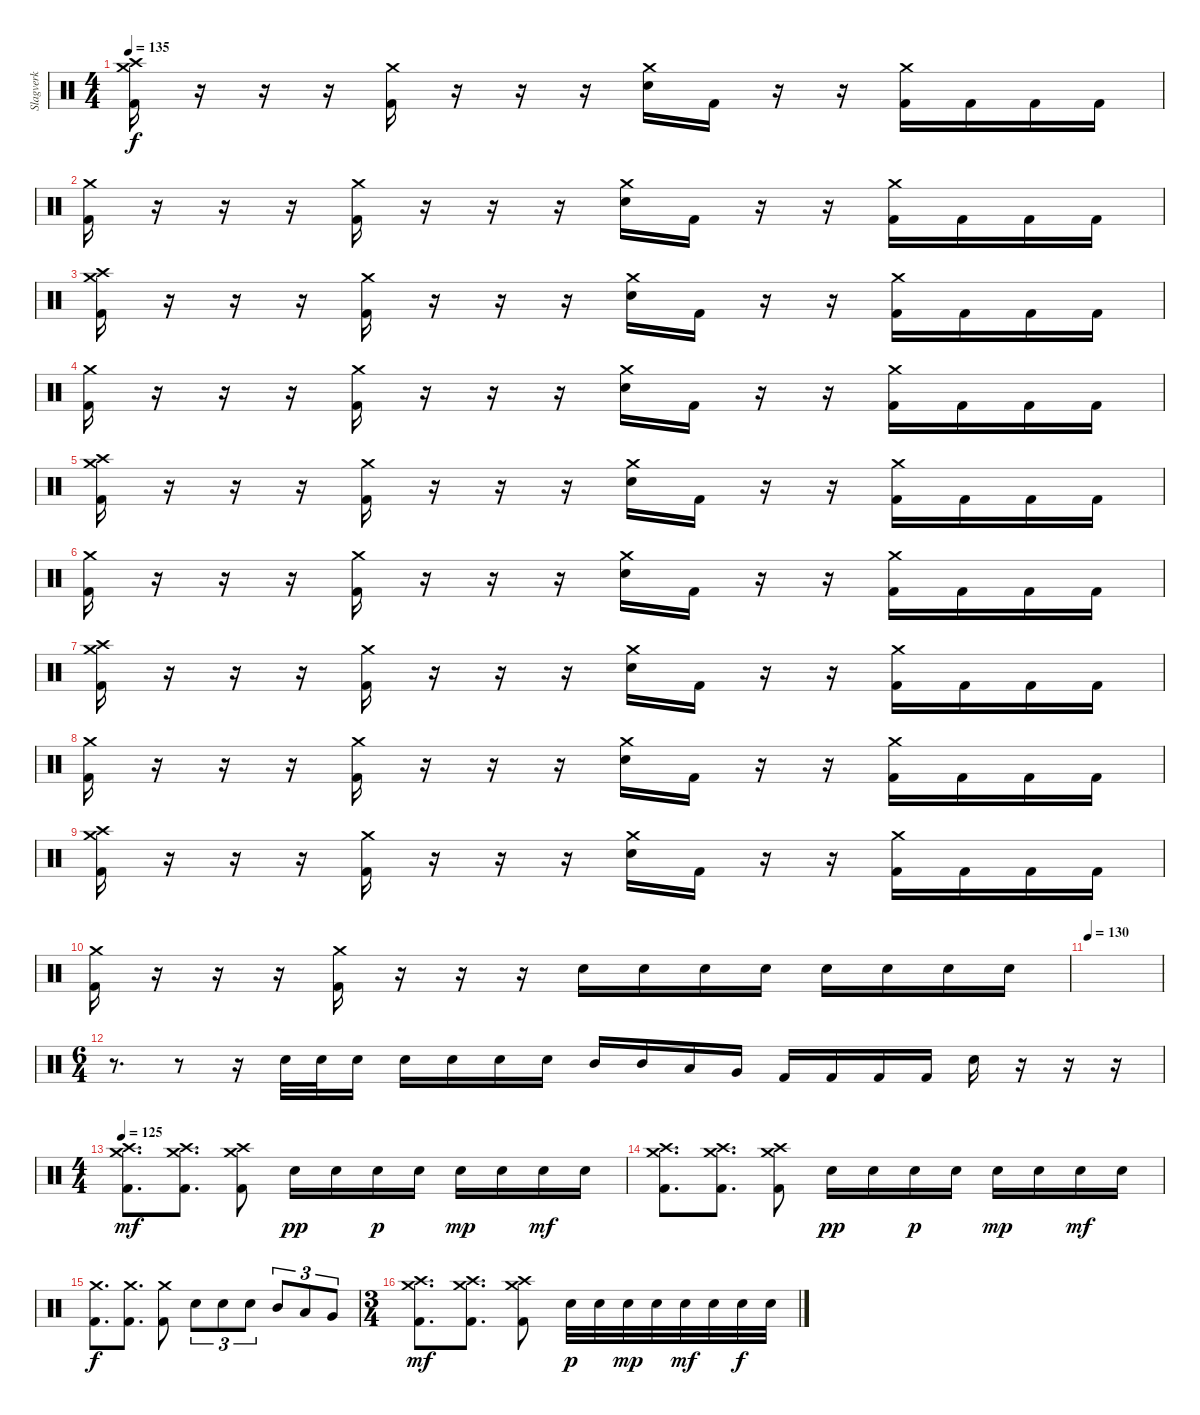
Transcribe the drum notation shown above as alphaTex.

\track ("Slagverk" "Slagverk") {instrument percussion}
\staff {score}
\articulation defaults
\ts (4 4)
\tempo 135
\clef neutral
\ks c
("Crash medium (hit)" "Crash high (hit)" "Kick (hit) 2").16{dy f} r.16 r.16 r.16 ("Crash medium (hit)" "Kick (hit) 2").16 r.16 r.16 r.16 ("Crash medium (hit)" "Electric Snare (hit)").16 "Kick (hit) 2".16 r.16 r.16 ("Crash medium (hit)" "Kick (hit) 2").16 "Kick (hit) 2".16 "Kick (hit) 2".16 "Kick (hit) 2".16 |
("Crash medium (hit)" "Kick (hit) 2").16 r.16 r.16 r.16 ("Crash medium (hit)" "Kick (hit) 2").16 r.16 r.16 r.16 ("Crash medium (hit)" "Electric Snare (hit)").16 "Kick (hit) 2".16 r.16 r.16 ("Crash medium (hit)" "Kick (hit) 2").16 "Kick (hit) 2".16 "Kick (hit) 2".16 "Kick (hit) 2".16 |
("Crash medium (hit)" "Crash high (hit)" "Kick (hit) 2").16 r.16 r.16 r.16 ("Crash medium (hit)" "Kick (hit) 2").16 r.16 r.16 r.16 ("Crash medium (hit)" "Electric Snare (hit)").16 "Kick (hit) 2".16 r.16 r.16 ("Crash medium (hit)" "Kick (hit) 2").16 "Kick (hit) 2".16 "Kick (hit) 2".16 "Kick (hit) 2".16 |
("Crash medium (hit)" "Kick (hit) 2").16 r.16 r.16 r.16 ("Crash medium (hit)" "Kick (hit) 2").16 r.16 r.16 r.16 ("Crash medium (hit)" "Electric Snare (hit)").16 "Kick (hit) 2".16 r.16 r.16 ("Crash medium (hit)" "Kick (hit) 2").16 "Kick (hit) 2".16 "Kick (hit) 2".16 "Kick (hit) 2".16 |
("Crash medium (hit)" "Crash high (hit)" "Kick (hit) 2").16 r.16 r.16 r.16 ("Crash medium (hit)" "Kick (hit) 2").16 r.16 r.16 r.16 ("Crash medium (hit)" "Electric Snare (hit)").16 "Kick (hit) 2".16 r.16 r.16 ("Crash medium (hit)" "Kick (hit) 2").16 "Kick (hit) 2".16 "Kick (hit) 2".16 "Kick (hit) 2".16 |
("Crash medium (hit)" "Kick (hit) 2").16 r.16 r.16 r.16 ("Crash medium (hit)" "Kick (hit) 2").16 r.16 r.16 r.16 ("Crash medium (hit)" "Electric Snare (hit)").16 "Kick (hit) 2".16 r.16 r.16 ("Crash medium (hit)" "Kick (hit) 2").16 "Kick (hit) 2".16 "Kick (hit) 2".16 "Kick (hit) 2".16 |
("Crash medium (hit)" "Crash high (hit)" "Kick (hit) 2").16 r.16 r.16 r.16 ("Crash medium (hit)" "Kick (hit) 2").16 r.16 r.16 r.16 ("Crash medium (hit)" "Electric Snare (hit)").16 "Kick (hit) 2".16 r.16 r.16 ("Crash medium (hit)" "Kick (hit) 2").16 "Kick (hit) 2".16 "Kick (hit) 2".16 "Kick (hit) 2".16 |
("Crash medium (hit)" "Kick (hit) 2").16 r.16 r.16 r.16 ("Crash medium (hit)" "Kick (hit) 2").16 r.16 r.16 r.16 ("Crash medium (hit)" "Electric Snare (hit)").16 "Kick (hit) 2".16 r.16 r.16 ("Crash medium (hit)" "Kick (hit) 2").16 "Kick (hit) 2".16 "Kick (hit) 2".16 "Kick (hit) 2".16 |
("Crash medium (hit)" "Crash high (hit)" "Kick (hit) 2").16 r.16 r.16 r.16 ("Crash medium (hit)" "Kick (hit) 2").16 r.16 r.16 r.16 ("Crash medium (hit)" "Electric Snare (hit)").16 "Kick (hit) 2".16 r.16 r.16 ("Crash medium (hit)" "Kick (hit) 2").16 "Kick (hit) 2".16 "Kick (hit) 2".16 "Kick (hit) 2".16 |
("Crash medium (hit)" "Kick (hit) 2").16 r.16 r.16 r.16 ("Crash medium (hit)" "Kick (hit) 2").16 r.16 r.16 r.16 "Electric Snare (hit)".16 "Electric Snare (hit)".16 "Electric Snare (hit)".16 "Electric Snare (hit)".16 "Electric Snare (hit)".16 "Electric Snare (hit)".16 "Electric Snare (hit)".16 "Electric Snare (hit)".16 |
\tempo 130
|
\ts (6 4)
r.8{d} r.8 r.16 "Electric Snare (hit)".32 "Electric Snare (hit)".32 "Electric Snare (hit)".16 "Electric Snare (hit)".16 "Electric Snare (hit)".16 "Electric Snare (hit)".16 "Electric Snare (hit)".16 "Mid Tom (hit)".16 "Mid Tom (hit)".16 "Low Tom (hit)".16 "Very Low Tom (hit)".16 "Kick (hit) 2".16 "Kick (hit) 2".16 "Kick (hit) 2".16 "Kick (hit) 2".16 "Electric Snare (hit)".16 r.16 r.16 r.16 |
\ts (4 4)
\tempo 125
("Crash high (hit)" "Crash medium (hit)" "Kick (hit) 2").8{d dy mf} ("Crash high (hit)" "Crash medium (hit)" "Kick (hit) 2").8{d} ("Crash high (hit)" "Crash medium (hit)" "Kick (hit) 2").8 "Electric Snare (hit)".16{dy pp} "Electric Snare (hit)".16 "Electric Snare (hit)".16{dy p} "Electric Snare (hit)".16 "Electric Snare (hit)".16{dy mp} "Electric Snare (hit)".16 "Electric Snare (hit)".16{dy mf} "Electric Snare (hit)".16 |
("Crash high (hit)" "Crash medium (hit)" "Kick (hit) 2").8{d} ("Crash high (hit)" "Crash medium (hit)" "Kick (hit) 2").8{d} ("Crash high (hit)" "Crash medium (hit)" "Kick (hit) 2").8 "Electric Snare (hit)".16{dy pp} "Electric Snare (hit)".16 "Electric Snare (hit)".16{dy p} "Electric Snare (hit)".16 "Electric Snare (hit)".16{dy mp} "Electric Snare (hit)".16 "Electric Snare (hit)".16{dy mf} "Electric Snare (hit)".16 |
("Crash medium (hit)" "Kick (hit) 2").8{d dy f} ("Crash medium (hit)" "Kick (hit) 2").8{d} ("Crash medium (hit)" "Kick (hit) 2").8 "Electric Snare (hit)".8{tu (3 2)} "Electric Snare (hit)".8{tu (3 2)} "Electric Snare (hit)".8{tu (3 2)} "Mid Tom (hit)".8{tu (3 2)} "Low Tom (hit)".8{tu (3 2)} "Very Low Tom (hit)".8{tu (3 2)} |
\ts (3 4)
("Crash high (hit)" "Crash medium (hit)" "Kick (hit) 2").8{d dy mf} ("Crash high (hit)" "Crash medium (hit)" "Kick (hit) 2").8{d} ("Crash high (hit)" "Crash medium (hit)" "Kick (hit) 2").8 "Electric Snare (hit)".32{dy p} "Electric Snare (hit)".32 "Electric Snare (hit)".32{dy mp} "Electric Snare (hit)".32 "Electric Snare (hit)".32{dy mf} "Electric Snare (hit)".32 "Electric Snare (hit)".32{dy f} "Electric Snare (hit)".32
